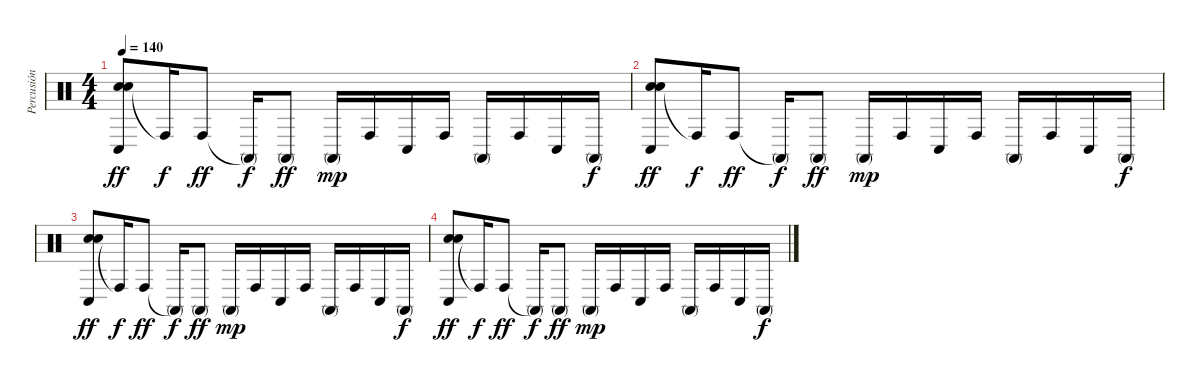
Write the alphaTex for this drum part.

\track ("Percusión Fredy Caldas" "Percusión ") {instrument percussion}
\staff {score}
\articulation defaults
\ts (4 4)
\tempo 140
\clef neutral
\ks c
("Snare (hit) 2" "Electric Snare (hit)" "Conga low (hit)").8{dy ff} "Conga high (hit)"{t}.16{dy f} "Conga high (hit)".8{dy ff} "Conga high (mute)"{t}.16{dy f} "Conga high (mute)".8{dy ff} "Conga high (mute)".16{dy mp} "Conga high (hit)".16 "Conga low (hit)".16 "Conga high (hit)".16 "Conga high (mute)".16 "Conga high (hit)".16 "Conga low (hit)".16 "Conga high (mute)".16{dy f} |
("Snare (hit) 2" "Electric Snare (hit)" "Conga low (hit)").8{dy ff} "Conga high (hit)"{t}.16{dy f} "Conga high (hit)".8{dy ff} "Conga high (mute)"{t}.16{dy f} "Conga high (mute)".8{dy ff} "Conga high (mute)".16{dy mp} "Conga high (hit)".16 "Conga low (hit)".16 "Conga high (hit)".16 "Conga high (mute)".16 "Conga high (hit)".16 "Conga low (hit)".16 "Conga high (mute)".16{dy f} |
("Snare (hit) 2" "Electric Snare (hit)" "Conga low (hit)").8{dy ff} "Conga high (hit)"{t}.16{dy f} "Conga high (hit)".8{dy ff} "Conga high (mute)"{t}.16{dy f} "Conga high (mute)".8{dy ff} "Conga high (mute)".16{dy mp} "Conga high (hit)".16 "Conga low (hit)".16 "Conga high (hit)".16 "Conga high (mute)".16 "Conga high (hit)".16 "Conga low (hit)".16 "Conga high (mute)".16{dy f} |
("Snare (hit) 2" "Electric Snare (hit)" "Conga low (hit)").8{dy ff} "Conga high (hit)"{t}.16{dy f} "Conga high (hit)".8{dy ff} "Conga high (mute)"{t}.16{dy f} "Conga high (mute)".8{dy ff} "Conga high (mute)".16{dy mp} "Conga high (hit)".16 "Conga low (hit)".16 "Conga high (hit)".16 "Conga high (mute)".16 "Conga high (hit)".16 "Conga low (hit)".16 "Conga high (mute)".16{dy f}
